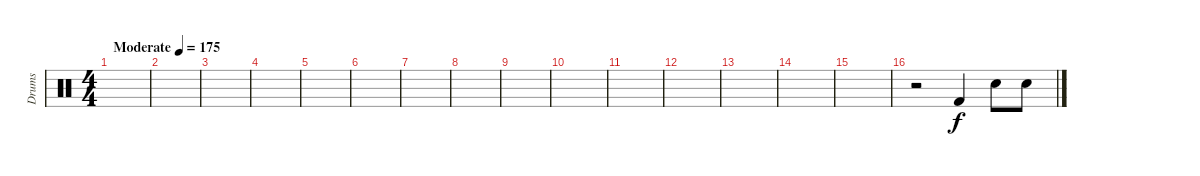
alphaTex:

\track ("Drums" "Drums") {instrument percussion}
\staff {score}
\articulation defaults
\ts (4 4)
\tempo (175 "Moderate")
\clef neutral
\ks c
|
|
|
|
|
|
|
|
|
|
|
|
|
|
|
r.2 "Kick (hit) 2".4 "Electric Snare (hit)".8 "Electric Snare (hit)".8
